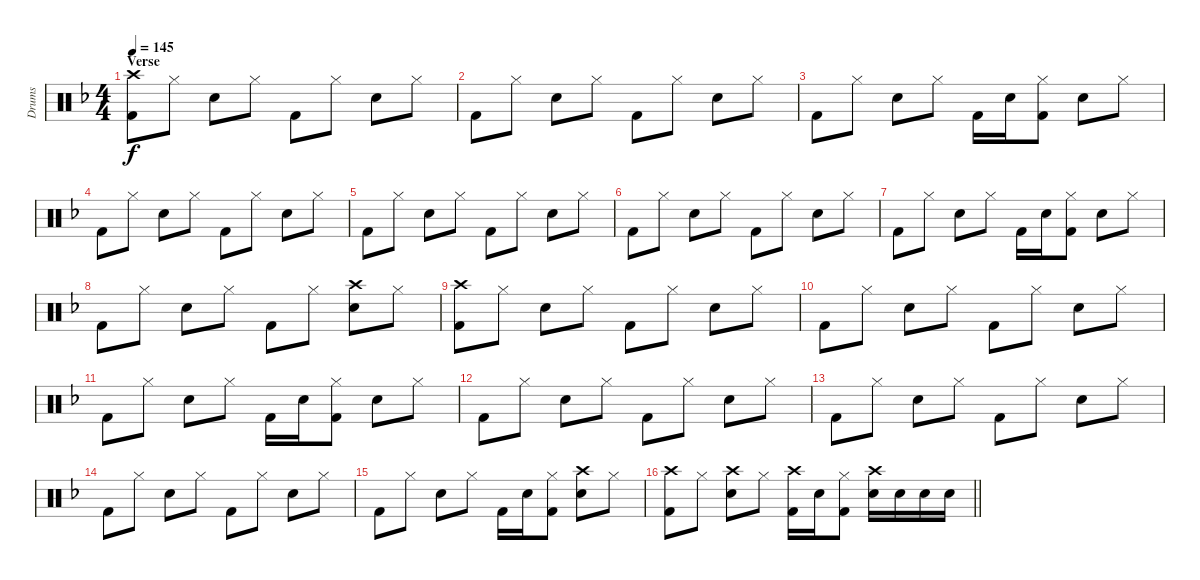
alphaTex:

\track ("Drums" "Drums") {instrument percussion}
\staff {score}
\articulation defaults
\ts (4 4)
\section ("" "Verse")
\tempo 145
\clef neutral
\ks f
("Crash high (hit)" "Kick (hit) 2").8{dy f} "Hi-Hat (closed)".8 "Snare (hit) 2".8 "Hi-Hat (closed)".8 "Kick (hit) 2".8 "Hi-Hat (closed)".8 "Snare (hit) 2".8 "Hi-Hat (closed)".8 |
"Kick (hit) 2".8 "Hi-Hat (closed)".8 "Snare (hit) 2".8 "Hi-Hat (closed)".8 "Kick (hit) 2".8 "Hi-Hat (closed)".8 "Snare (hit) 2".8 "Hi-Hat (closed)".8 |
"Kick (hit) 2".8 "Hi-Hat (closed)".8 "Snare (hit) 2".8 "Hi-Hat (closed)".8 "Kick (hit) 2".16 "Snare (hit) 2".16 ("Kick (hit) 2" "Hi-Hat (closed)").8 "Snare (hit) 2".8 "Hi-Hat (closed)".8 |
"Kick (hit) 2".8 "Hi-Hat (closed)".8 "Snare (hit) 2".8 "Hi-Hat (closed)".8 "Kick (hit) 2".8 "Hi-Hat (closed)".8 "Snare (hit) 2".8 "Hi-Hat (closed)".8 |
"Kick (hit) 2".8 "Hi-Hat (closed)".8 "Snare (hit) 2".8 "Hi-Hat (closed)".8 "Kick (hit) 2".8 "Hi-Hat (closed)".8 "Snare (hit) 2".8 "Hi-Hat (closed)".8 |
"Kick (hit) 2".8 "Hi-Hat (closed)".8 "Snare (hit) 2".8 "Hi-Hat (closed)".8 "Kick (hit) 2".8 "Hi-Hat (closed)".8 "Snare (hit) 2".8 "Hi-Hat (closed)".8 |
"Kick (hit) 2".8 "Hi-Hat (closed)".8 "Snare (hit) 2".8 "Hi-Hat (closed)".8 "Kick (hit) 2".16 "Snare (hit) 2".16 ("Kick (hit) 2" "Hi-Hat (closed)").8 "Snare (hit) 2".8 "Hi-Hat (closed)".8 |
"Kick (hit) 2".8 "Hi-Hat (closed)".8 "Snare (hit) 2".8 "Hi-Hat (closed)".8 "Kick (hit) 2".8 "Hi-Hat (closed)".8 ("Snare (hit) 2" "Crash high (hit)").8 "Hi-Hat (closed)".8 |
("Crash high (hit)" "Kick (hit) 2").8 "Hi-Hat (closed)".8 "Snare (hit) 2".8 "Hi-Hat (closed)".8 "Kick (hit) 2".8 "Hi-Hat (closed)".8 "Snare (hit) 2".8 "Hi-Hat (closed)".8 |
"Kick (hit) 2".8 "Hi-Hat (closed)".8 "Snare (hit) 2".8 "Hi-Hat (closed)".8 "Kick (hit) 2".8 "Hi-Hat (closed)".8 "Snare (hit) 2".8 "Hi-Hat (closed)".8 |
"Kick (hit) 2".8 "Hi-Hat (closed)".8 "Snare (hit) 2".8 "Hi-Hat (closed)".8 "Kick (hit) 2".16 "Snare (hit) 2".16 ("Kick (hit) 2" "Hi-Hat (closed)").8 "Snare (hit) 2".8 "Hi-Hat (closed)".8 |
"Kick (hit) 2".8 "Hi-Hat (closed)".8 "Snare (hit) 2".8 "Hi-Hat (closed)".8 "Kick (hit) 2".8 "Hi-Hat (closed)".8 "Snare (hit) 2".8 "Hi-Hat (closed)".8 |
"Kick (hit) 2".8 "Hi-Hat (closed)".8 "Snare (hit) 2".8 "Hi-Hat (closed)".8 "Kick (hit) 2".8 "Hi-Hat (closed)".8 "Snare (hit) 2".8 "Hi-Hat (closed)".8 |
"Kick (hit) 2".8 "Hi-Hat (closed)".8 "Snare (hit) 2".8 "Hi-Hat (closed)".8 "Kick (hit) 2".8 "Hi-Hat (closed)".8 "Snare (hit) 2".8 "Hi-Hat (closed)".8 |
"Kick (hit) 2".8 "Hi-Hat (closed)".8 "Snare (hit) 2".8 "Hi-Hat (closed)".8 "Kick (hit) 2".16 "Snare (hit) 2".16 ("Kick (hit) 2" "Hi-Hat (closed)").8 ("Snare (hit) 2" "Crash high (hit)").8 "Hi-Hat (closed)".8 |
\barLineRight lightlight
("Kick (hit) 2" "Crash high (hit)").8 "Hi-Hat (closed)".8 ("Snare (hit) 2" "Crash high (hit)").8 "Hi-Hat (closed)".8 ("Kick (hit) 2" "Crash high (hit)").16 "Snare (hit) 2".16 ("Kick (hit) 2" "Hi-Hat (closed)").8 ("Snare (hit) 2" "Crash high (hit)").16 "Snare (hit) 2".16 "Snare (hit) 2".16 "Snare (hit) 2".16
